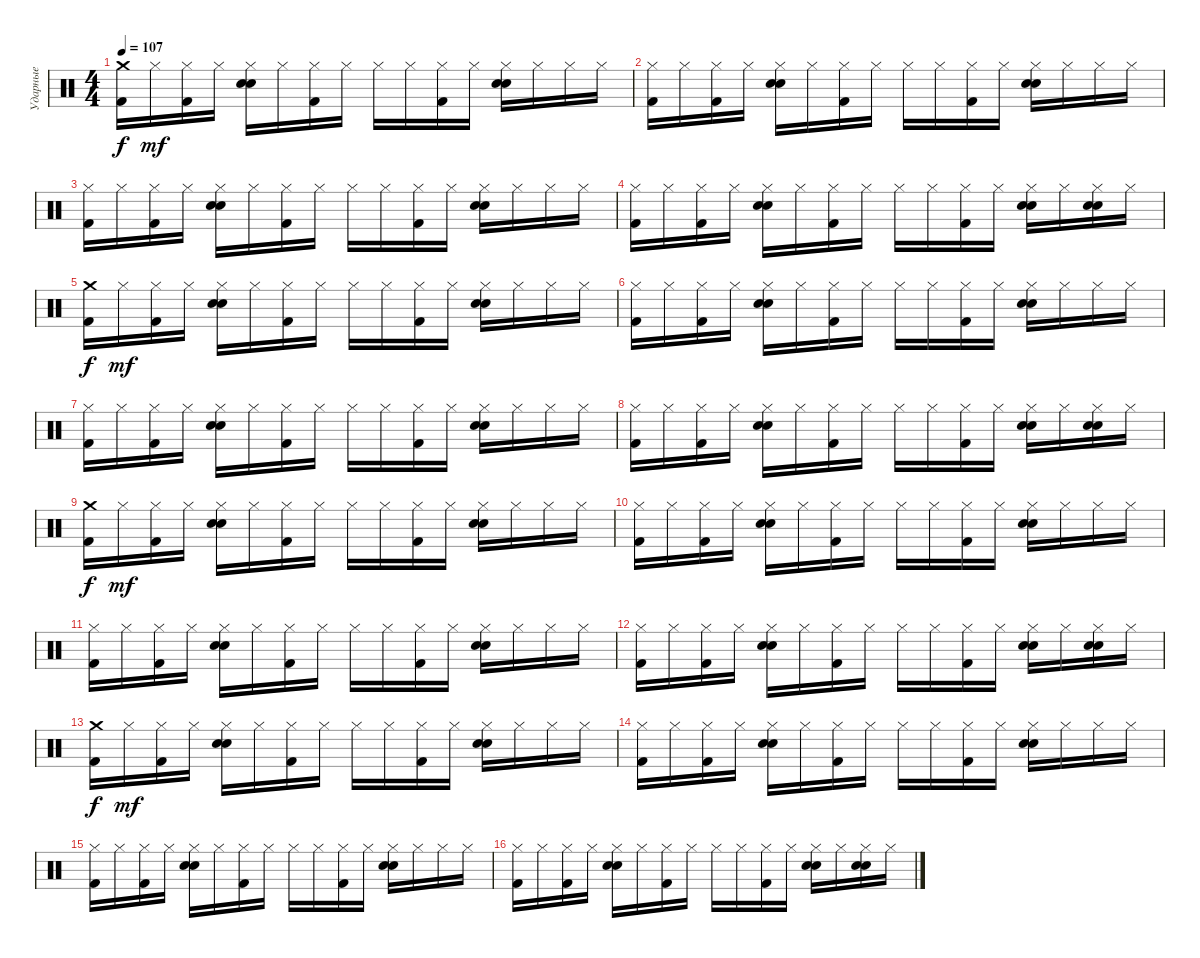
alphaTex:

\track ("Ударные" "Ударные") {instrument percussion}
\staff {score}
\articulation defaults
\ts (4 4)
\tempo 107
\clef neutral
\ks c
("Kick (hit) 2" "Crash medium (hit)").16{dy f} "Hi-Hat (closed)".16{dy mf} ("Kick (hit) 2" "Hi-Hat (closed)").16 "Hi-Hat (closed)".16 ("Snare (hit) 2" "Hand Clap (hit)" "Hi-Hat (closed)").16 "Hi-Hat (closed)".16 ("Kick (hit) 2" "Hi-Hat (closed)").16 "Hi-Hat (closed)".16 "Hi-Hat (closed)".16 "Hi-Hat (closed)".16 ("Kick (hit) 2" "Hi-Hat (closed)").16 "Hi-Hat (closed)".16 ("Snare (hit) 2" "Hand Clap (hit)" "Hi-Hat (closed)").16 "Hi-Hat (closed)".16 "Hi-Hat (closed)".16 "Hi-Hat (closed)".16 |
("Kick (hit) 2" "Hi-Hat (closed)").16 "Hi-Hat (closed)".16 ("Kick (hit) 2" "Hi-Hat (closed)").16 "Hi-Hat (closed)".16 ("Snare (hit) 2" "Hand Clap (hit)" "Hi-Hat (closed)").16 "Hi-Hat (closed)".16 ("Kick (hit) 2" "Hi-Hat (closed)").16 "Hi-Hat (closed)".16 "Hi-Hat (closed)".16 "Hi-Hat (closed)".16 ("Kick (hit) 2" "Hi-Hat (closed)").16 "Hi-Hat (closed)".16 ("Snare (hit) 2" "Hand Clap (hit)" "Hi-Hat (closed)").16 "Hi-Hat (closed)".16 "Hi-Hat (closed)".16 "Hi-Hat (closed)".16 |
("Kick (hit) 2" "Hi-Hat (closed)").16 "Hi-Hat (closed)".16 ("Kick (hit) 2" "Hi-Hat (closed)").16 "Hi-Hat (closed)".16 ("Snare (hit) 2" "Hand Clap (hit)" "Hi-Hat (closed)").16 "Hi-Hat (closed)".16 ("Kick (hit) 2" "Hi-Hat (closed)").16 "Hi-Hat (closed)".16 "Hi-Hat (closed)".16 "Hi-Hat (closed)".16 ("Kick (hit) 2" "Hi-Hat (closed)").16 "Hi-Hat (closed)".16 ("Snare (hit) 2" "Hand Clap (hit)" "Hi-Hat (closed)").16 "Hi-Hat (closed)".16 "Hi-Hat (closed)".16 "Hi-Hat (closed)".16 |
("Kick (hit) 2" "Hi-Hat (closed)").16 "Hi-Hat (closed)".16 ("Kick (hit) 2" "Hi-Hat (closed)").16 "Hi-Hat (closed)".16 ("Snare (hit) 2" "Hand Clap (hit)" "Hi-Hat (closed)").16 "Hi-Hat (closed)".16 ("Kick (hit) 2" "Hi-Hat (closed)").16 "Hi-Hat (closed)".16 "Hi-Hat (closed)".16 "Hi-Hat (closed)".16 ("Kick (hit) 2" "Hi-Hat (closed)").16 "Hi-Hat (closed)".16 ("Snare (hit) 2" "Hand Clap (hit)" "Hi-Hat (closed)").16 "Hi-Hat (closed)".16 ("Snare (hit) 2" "Hand Clap (hit)" "Hi-Hat (closed)").16 "Hi-Hat (closed)".16 |
("Kick (hit) 2" "Crash medium (hit)").16{dy f} "Hi-Hat (closed)".16{dy mf} ("Kick (hit) 2" "Hi-Hat (closed)").16 "Hi-Hat (closed)".16 ("Snare (hit) 2" "Hand Clap (hit)" "Hi-Hat (closed)").16 "Hi-Hat (closed)".16 ("Kick (hit) 2" "Hi-Hat (closed)").16 "Hi-Hat (closed)".16 "Hi-Hat (closed)".16 "Hi-Hat (closed)".16 ("Kick (hit) 2" "Hi-Hat (closed)").16 "Hi-Hat (closed)".16 ("Snare (hit) 2" "Hand Clap (hit)" "Hi-Hat (closed)").16 "Hi-Hat (closed)".16 "Hi-Hat (closed)".16 "Hi-Hat (closed)".16 |
("Kick (hit) 2" "Hi-Hat (closed)").16 "Hi-Hat (closed)".16 ("Kick (hit) 2" "Hi-Hat (closed)").16 "Hi-Hat (closed)".16 ("Snare (hit) 2" "Hand Clap (hit)" "Hi-Hat (closed)").16 "Hi-Hat (closed)".16 ("Kick (hit) 2" "Hi-Hat (closed)").16 "Hi-Hat (closed)".16 "Hi-Hat (closed)".16 "Hi-Hat (closed)".16 ("Kick (hit) 2" "Hi-Hat (closed)").16 "Hi-Hat (closed)".16 ("Snare (hit) 2" "Hand Clap (hit)" "Hi-Hat (closed)").16 "Hi-Hat (closed)".16 "Hi-Hat (closed)".16 "Hi-Hat (closed)".16 |
("Kick (hit) 2" "Hi-Hat (closed)").16 "Hi-Hat (closed)".16 ("Kick (hit) 2" "Hi-Hat (closed)").16 "Hi-Hat (closed)".16 ("Snare (hit) 2" "Hand Clap (hit)" "Hi-Hat (closed)").16 "Hi-Hat (closed)".16 ("Kick (hit) 2" "Hi-Hat (closed)").16 "Hi-Hat (closed)".16 "Hi-Hat (closed)".16 "Hi-Hat (closed)".16 ("Kick (hit) 2" "Hi-Hat (closed)").16 "Hi-Hat (closed)".16 ("Snare (hit) 2" "Hand Clap (hit)" "Hi-Hat (closed)").16 "Hi-Hat (closed)".16 "Hi-Hat (closed)".16 "Hi-Hat (closed)".16 |
("Kick (hit) 2" "Hi-Hat (closed)").16 "Hi-Hat (closed)".16 ("Kick (hit) 2" "Hi-Hat (closed)").16 "Hi-Hat (closed)".16 ("Snare (hit) 2" "Hand Clap (hit)" "Hi-Hat (closed)").16 "Hi-Hat (closed)".16 ("Kick (hit) 2" "Hi-Hat (closed)").16 "Hi-Hat (closed)".16 "Hi-Hat (closed)".16 "Hi-Hat (closed)".16 ("Kick (hit) 2" "Hi-Hat (closed)").16 "Hi-Hat (closed)".16 ("Snare (hit) 2" "Hand Clap (hit)" "Hi-Hat (closed)").16 "Hi-Hat (closed)".16 ("Snare (hit) 2" "Hand Clap (hit)" "Hi-Hat (closed)").16 "Hi-Hat (closed)".16 |
("Kick (hit) 2" "Crash medium (hit)").16{dy f} "Hi-Hat (closed)".16{dy mf} ("Kick (hit) 2" "Hi-Hat (closed)").16 "Hi-Hat (closed)".16 ("Snare (hit) 2" "Hand Clap (hit)" "Hi-Hat (closed)").16 "Hi-Hat (closed)".16 ("Kick (hit) 2" "Hi-Hat (closed)").16 "Hi-Hat (closed)".16 "Hi-Hat (closed)".16 "Hi-Hat (closed)".16 ("Kick (hit) 2" "Hi-Hat (closed)").16 "Hi-Hat (closed)".16 ("Snare (hit) 2" "Hand Clap (hit)" "Hi-Hat (closed)").16 "Hi-Hat (closed)".16 "Hi-Hat (closed)".16 "Hi-Hat (closed)".16 |
("Kick (hit) 2" "Hi-Hat (closed)").16 "Hi-Hat (closed)".16 ("Kick (hit) 2" "Hi-Hat (closed)").16 "Hi-Hat (closed)".16 ("Snare (hit) 2" "Hand Clap (hit)" "Hi-Hat (closed)").16 "Hi-Hat (closed)".16 ("Kick (hit) 2" "Hi-Hat (closed)").16 "Hi-Hat (closed)".16 "Hi-Hat (closed)".16 "Hi-Hat (closed)".16 ("Kick (hit) 2" "Hi-Hat (closed)").16 "Hi-Hat (closed)".16 ("Snare (hit) 2" "Hand Clap (hit)" "Hi-Hat (closed)").16 "Hi-Hat (closed)".16 "Hi-Hat (closed)".16 "Hi-Hat (closed)".16 |
("Kick (hit) 2" "Hi-Hat (closed)").16 "Hi-Hat (closed)".16 ("Kick (hit) 2" "Hi-Hat (closed)").16 "Hi-Hat (closed)".16 ("Snare (hit) 2" "Hand Clap (hit)" "Hi-Hat (closed)").16 "Hi-Hat (closed)".16 ("Kick (hit) 2" "Hi-Hat (closed)").16 "Hi-Hat (closed)".16 "Hi-Hat (closed)".16 "Hi-Hat (closed)".16 ("Kick (hit) 2" "Hi-Hat (closed)").16 "Hi-Hat (closed)".16 ("Snare (hit) 2" "Hand Clap (hit)" "Hi-Hat (closed)").16 "Hi-Hat (closed)".16 "Hi-Hat (closed)".16 "Hi-Hat (closed)".16 |
("Kick (hit) 2" "Hi-Hat (closed)").16 "Hi-Hat (closed)".16 ("Kick (hit) 2" "Hi-Hat (closed)").16 "Hi-Hat (closed)".16 ("Snare (hit) 2" "Hand Clap (hit)" "Hi-Hat (closed)").16 "Hi-Hat (closed)".16 ("Kick (hit) 2" "Hi-Hat (closed)").16 "Hi-Hat (closed)".16 "Hi-Hat (closed)".16 "Hi-Hat (closed)".16 ("Kick (hit) 2" "Hi-Hat (closed)").16 "Hi-Hat (closed)".16 ("Snare (hit) 2" "Hand Clap (hit)" "Hi-Hat (closed)").16 "Hi-Hat (closed)".16 ("Snare (hit) 2" "Hand Clap (hit)" "Hi-Hat (closed)").16 "Hi-Hat (closed)".16 |
("Kick (hit) 2" "Crash medium (hit)").16{dy f} "Hi-Hat (closed)".16{dy mf} ("Kick (hit) 2" "Hi-Hat (closed)").16 "Hi-Hat (closed)".16 ("Snare (hit) 2" "Hand Clap (hit)" "Hi-Hat (closed)").16 "Hi-Hat (closed)".16 ("Kick (hit) 2" "Hi-Hat (closed)").16 "Hi-Hat (closed)".16 "Hi-Hat (closed)".16 "Hi-Hat (closed)".16 ("Kick (hit) 2" "Hi-Hat (closed)").16 "Hi-Hat (closed)".16 ("Snare (hit) 2" "Hand Clap (hit)" "Hi-Hat (closed)").16 "Hi-Hat (closed)".16 "Hi-Hat (closed)".16 "Hi-Hat (closed)".16 |
("Kick (hit) 2" "Hi-Hat (closed)").16 "Hi-Hat (closed)".16 ("Kick (hit) 2" "Hi-Hat (closed)").16 "Hi-Hat (closed)".16 ("Snare (hit) 2" "Hand Clap (hit)" "Hi-Hat (closed)").16 "Hi-Hat (closed)".16 ("Kick (hit) 2" "Hi-Hat (closed)").16 "Hi-Hat (closed)".16 "Hi-Hat (closed)".16 "Hi-Hat (closed)".16 ("Kick (hit) 2" "Hi-Hat (closed)").16 "Hi-Hat (closed)".16 ("Snare (hit) 2" "Hand Clap (hit)" "Hi-Hat (closed)").16 "Hi-Hat (closed)".16 "Hi-Hat (closed)".16 "Hi-Hat (closed)".16 |
("Kick (hit) 2" "Hi-Hat (closed)").16 "Hi-Hat (closed)".16 ("Kick (hit) 2" "Hi-Hat (closed)").16 "Hi-Hat (closed)".16 ("Snare (hit) 2" "Hand Clap (hit)" "Hi-Hat (closed)").16 "Hi-Hat (closed)".16 ("Kick (hit) 2" "Hi-Hat (closed)").16 "Hi-Hat (closed)".16 "Hi-Hat (closed)".16 "Hi-Hat (closed)".16 ("Kick (hit) 2" "Hi-Hat (closed)").16 "Hi-Hat (closed)".16 ("Snare (hit) 2" "Hand Clap (hit)" "Hi-Hat (closed)").16 "Hi-Hat (closed)".16 "Hi-Hat (closed)".16 "Hi-Hat (closed)".16 |
("Kick (hit) 2" "Hi-Hat (closed)").16 "Hi-Hat (closed)".16 ("Kick (hit) 2" "Hi-Hat (closed)").16 "Hi-Hat (closed)".16 ("Snare (hit) 2" "Hand Clap (hit)" "Hi-Hat (closed)").16 "Hi-Hat (closed)".16 ("Kick (hit) 2" "Hi-Hat (closed)").16 "Hi-Hat (closed)".16 "Hi-Hat (closed)".16 "Hi-Hat (closed)".16 ("Kick (hit) 2" "Hi-Hat (closed)").16 "Hi-Hat (closed)".16 ("Snare (hit) 2" "Hand Clap (hit)" "Hi-Hat (closed)").16 "Hi-Hat (closed)".16 ("Snare (hit) 2" "Hand Clap (hit)" "Hi-Hat (closed)").16 "Hi-Hat (closed)".16
